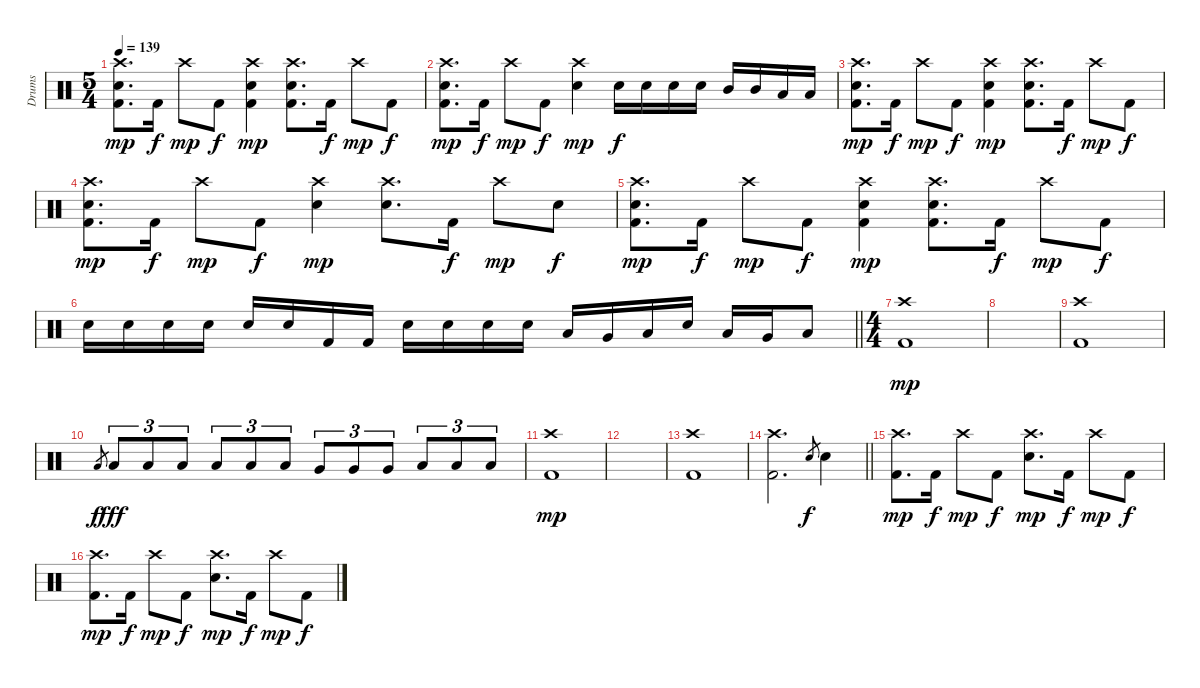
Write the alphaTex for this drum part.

\track ("Drums" "Drums") {instrument percussion}
\staff {score}
\articulation defaults
\ts (5 4)
\tempo 139
\clef neutral
\ks c
("Crash high (hit)" "Snare (hit) 2" "Kick (hit) 2").8{d dy mp} "Kick (hit) 2".16{dy f} "Crash high (hit)".8{dy mp} "Kick (hit) 2".8{dy f} ("Crash high (hit)" "Snare (hit) 2" "Kick (hit) 2").4{dy mp} ("Crash high (hit)" "Snare (hit) 2" "Kick (hit) 2").8{d} "Kick (hit) 2".16{dy f} "Crash high (hit)".8{dy mp} "Kick (hit) 2".8{dy f} |
("Crash high (hit)" "Snare (hit) 2" "Kick (hit) 2").8{d dy mp} "Kick (hit) 2".16{dy f} "Crash high (hit)".8{dy mp} "Kick (hit) 2".8{dy f} ("Crash high (hit)" "Snare (hit) 2").4{dy mp} "Snare (hit) 2".16{dy f} "Snare (hit) 2".16 "Snare (hit) 2".16 "Snare (hit) 2".16 "Mid Tom (hit)".16 "Mid Tom (hit)".16 "Low Tom (hit)".16 "Low Tom (hit)".16 |
("Crash high (hit)" "Snare (hit) 2" "Kick (hit) 2").8{d dy mp} "Kick (hit) 2".16{dy f} "Crash high (hit)".8{dy mp} "Kick (hit) 2".8{dy f} ("Crash high (hit)" "Snare (hit) 2" "Kick (hit) 2").4{dy mp} ("Crash high (hit)" "Snare (hit) 2" "Kick (hit) 2").8{d} "Kick (hit) 2".16{dy f} "Crash high (hit)".8{dy mp} "Kick (hit) 2".8{dy f} |
("Crash high (hit)" "Snare (hit) 2" "Kick (hit) 2").8{d dy mp} "Kick (hit) 2".16{dy f} "Crash high (hit)".8{dy mp} "Kick (hit) 2".8{dy f} ("Crash high (hit)" "Snare (hit) 2").4{dy mp} ("Crash high (hit)" "Snare (hit) 2").8{d} "Kick (hit) 2".16{dy f} "Crash high (hit)".8{dy mp} "Snare (hit) 2".8{dy f} |
("Crash high (hit)" "Snare (hit) 2" "Kick (hit) 2").8{d dy mp} "Kick (hit) 2".16{dy f} "Crash high (hit)".8{dy mp} "Kick (hit) 2".8{dy f} ("Crash high (hit)" "Snare (hit) 2" "Kick (hit) 2").4{dy mp} ("Crash high (hit)" "Snare (hit) 2" "Kick (hit) 2").8{d} "Kick (hit) 2".16{dy f} "Crash high (hit)".8{dy mp} "Kick (hit) 2".8{dy f} |
\barLineRight lightlight "Snare (hit) 2".16 "Snare (hit) 2".16 "Snare (hit) 2".16 "Snare (hit) 2".16 "Snare (hit) 2".16 "Snare (hit) 2".16 "Kick (hit) 2".16 "Kick (hit) 2".16 "Snare (hit) 2".16 "Snare (hit) 2".16 "Snare (hit) 2".16 "Snare (hit) 2".16 "Low Tom (hit)".16 "Very Low Tom (hit)".16 "Low Floor Tom (hit)".16 "Snare (hit) 2".16 "Low Tom (hit)".16 "Very Low Tom (hit)".16 "Low Floor Tom (hit)".8
|
\ts (4 4)
("Crash high (hit)" "Kick (hit) 2").1{dy mp} |
|
("Crash high (hit)" "Kick (hit) 2").1 |
"Low Tom (hit)".8{gr dy f} "Low Tom (hit)".8{tu (3 2) dy fff} "Low Tom (hit)".8{tu (3 2)} "Low Tom (hit)".8{tu (3 2)} "Low Tom (hit)".8{tu (3 2)} "Low Tom (hit)".8{tu (3 2)} "Low Tom (hit)".8{tu (3 2)} "Very Low Tom (hit)".8{tu (3 2)} "Very Low Tom (hit)".8{tu (3 2)} "Very Low Tom (hit)".8{tu (3 2)} "Low Floor Tom (hit)".8{tu (3 2)} "Low Floor Tom (hit)".8{tu (3 2)} "Low Floor Tom (hit)".8{tu (3 2)} |
("Crash high (hit)" "Kick (hit) 2").1{dy mp} |
|
("Crash high (hit)" "Kick (hit) 2").1 |
\barLineRight lightlight
("Crash high (hit)" "Kick (hit) 2").2{d} "Snare (hit) 2".8{gr dy f} "Snare (hit) 2".4 |
("Crash high (hit)" "Kick (hit) 2").8{d dy mp} "Kick (hit) 2".16{dy f} "Crash high (hit)".8{dy mp} "Kick (hit) 2".8{dy f} ("Crash high (hit)" "Snare (hit) 2").8{d dy mp} "Kick (hit) 2".16{dy f} "Crash high (hit)".8{dy mp} "Kick (hit) 2".8{dy f} |
("Crash high (hit)" "Kick (hit) 2").8{d dy mp} "Kick (hit) 2".16{dy f} "Crash high (hit)".8{dy mp} "Kick (hit) 2".8{dy f} ("Crash high (hit)" "Snare (hit) 2").8{d dy mp} "Kick (hit) 2".16{dy f} "Crash high (hit)".8{dy mp} "Kick (hit) 2".8{dy f}
